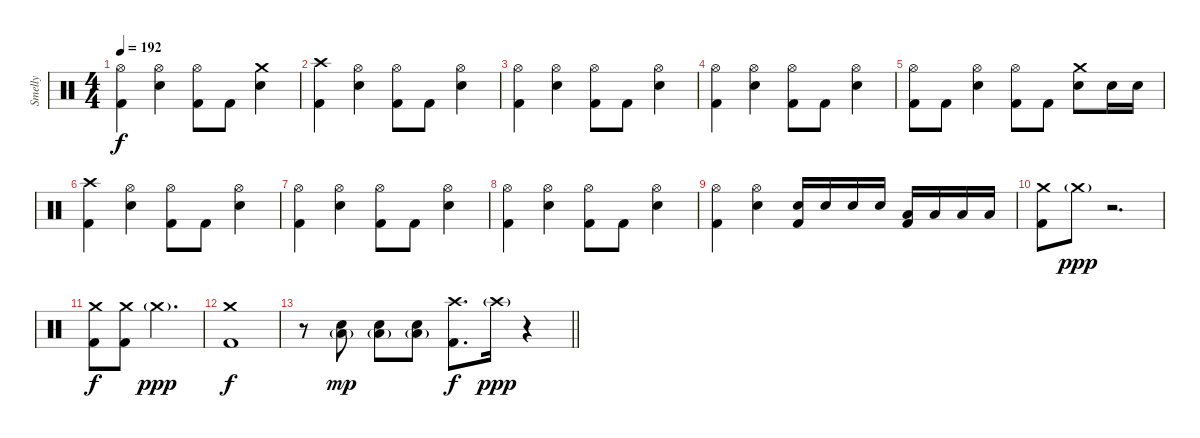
\track ("Smelly" "Smelly") {instrument percussion}
\staff {score}
\articulation defaults
\ts (4 4)
\tempo 192
\clef neutral
\ks c
("Hi-Hat (open)" "Kick (hit) 2").4{dy f} ("Hi-Hat (open)" "Electric Snare (hit)").4 ("Hi-Hat (open)" "Kick (hit) 2").8 "Kick (hit) 2".8 ("Crash medium (hit)" "Electric Snare (hit)").4 |
("Crash high (hit)" "Kick (hit) 2").4 ("Hi-Hat (open)" "Electric Snare (hit)").4 ("Hi-Hat (open)" "Kick (hit) 2").8 "Kick (hit) 2".8 ("Hi-Hat (open)" "Electric Snare (hit)").4 |
("Hi-Hat (open)" "Kick (hit) 2").4 ("Hi-Hat (open)" "Electric Snare (hit)").4 ("Hi-Hat (open)" "Kick (hit) 2").8 "Kick (hit) 2".8 ("Hi-Hat (open)" "Electric Snare (hit)").4 |
("Hi-Hat (open)" "Kick (hit) 2").4 ("Hi-Hat (open)" "Electric Snare (hit)").4 ("Hi-Hat (open)" "Kick (hit) 2").8 "Kick (hit) 2".8 ("Hi-Hat (open)" "Electric Snare (hit)").4 |
("Hi-Hat (open)" "Kick (hit) 2").8 "Kick (hit) 2".8 ("Hi-Hat (open)" "Electric Snare (hit)").4 ("Hi-Hat (open)" "Kick (hit) 2").8 "Kick (hit) 2".8 ("Crash medium (hit)" "Electric Snare (hit)").8 "Electric Snare (hit)".16 "Electric Snare (hit)".16 |
("Crash high (hit)" "Kick (hit) 2").4 ("Hi-Hat (open)" "Electric Snare (hit)").4 ("Hi-Hat (open)" "Kick (hit) 2").8 "Kick (hit) 2".8 ("Hi-Hat (open)" "Electric Snare (hit)").4 |
("Hi-Hat (open)" "Kick (hit) 2").4 ("Hi-Hat (open)" "Electric Snare (hit)").4 ("Hi-Hat (open)" "Kick (hit) 2").8 "Kick (hit) 2".8 ("Hi-Hat (open)" "Electric Snare (hit)").4 |
("Hi-Hat (open)" "Kick (hit) 2").4 ("Hi-Hat (open)" "Electric Snare (hit)").4 ("Hi-Hat (open)" "Kick (hit) 2").8 "Kick (hit) 2".8 ("Hi-Hat (open)" "Electric Snare (hit)").4 |
("Hi-Hat (open)" "Kick (hit) 2").4 ("Hi-Hat (open)" "Electric Snare (hit)").4 ("Electric Snare (hit)" "Kick (hit) 2").16 "Electric Snare (hit)".16 "Electric Snare (hit)".16 "Electric Snare (hit)".16 ("Low Tom (hit)" "Kick (hit) 2").16 "Low Tom (hit)".16 "Low Tom (hit)".16 "Low Tom (hit)".16 |
("Crash medium (hit)" "Kick (hit) 2").8 "Crash medium (hit)"{g}.8{dy ppp} r.2{d} |
("Crash medium (hit)" "Kick (hit) 2").8{dy f} ("Crash medium (hit)" "Kick (hit) 2").8 "Crash medium (hit)"{g}.2{d dy ppp} |
("Crash medium (hit)" "Kick (hit) 2").1{dy f} |
\barLineRight lightlight
r.8 ("Electric Snare (hit)" "Low Floor Tom (hit)"{g}).8{dy mp} ("Electric Snare (hit)" "Low Floor Tom (hit)"{g}).8 ("Electric Snare (hit)" "Low Floor Tom (hit)"{g}).8 ("Crash high (hit)" "Kick (hit) 2").8{d dy f} "Crash high (hit)"{g}.16{dy ppp} r.4
